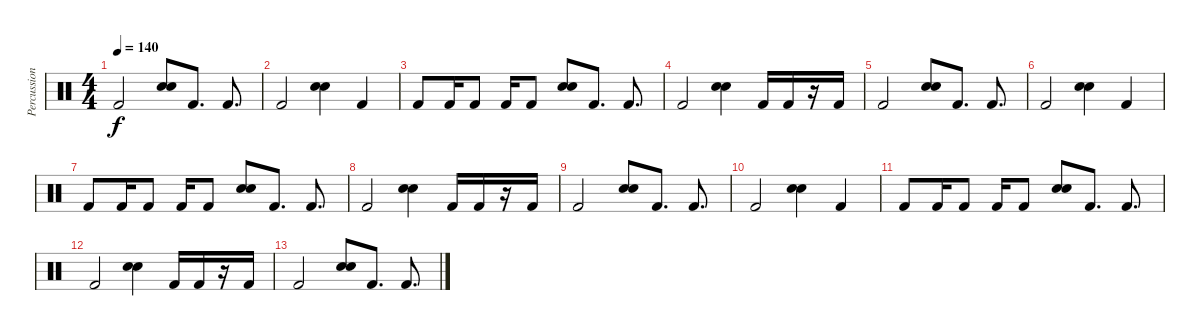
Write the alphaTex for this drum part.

\track ("Percussion" "Percussion") {instrument percussion}
\staff {score}
\articulation defaults
\ts (4 4)
\tempo 140
\clef neutral
\ks c "Kick (hit) 2".2{dy f}
("Snare (hit) 2" "Hand Clap (hit)").8 "Kick (hit) 2".8{d} "Kick (hit) 2".8{d} |
"Kick (hit) 2".2 ("Snare (hit) 2" "Hand Clap (hit)").4 "Kick (hit) 2".4 |
"Kick (hit) 2".8 "Kick (hit) 2".16 "Kick (hit) 2".8 "Kick (hit) 2".16 "Kick (hit) 2".8 ("Snare (hit) 2" "Hand Clap (hit)").8 "Kick (hit) 2".8{d} "Kick (hit) 2".8{d} |
"Kick (hit) 2".2 ("Snare (hit) 2" "Hand Clap (hit)").4 "Kick (hit) 2".16 "Kick (hit) 2".16 r.16 "Kick (hit) 2".16 |
"Kick (hit) 2".2 ("Snare (hit) 2" "Hand Clap (hit)").8 "Kick (hit) 2".8{d} "Kick (hit) 2".8{d} |
"Kick (hit) 2".2 ("Snare (hit) 2" "Hand Clap (hit)").4 "Kick (hit) 2".4 |
"Kick (hit) 2".8 "Kick (hit) 2".16 "Kick (hit) 2".8 "Kick (hit) 2".16 "Kick (hit) 2".8 ("Snare (hit) 2" "Hand Clap (hit)").8 "Kick (hit) 2".8{d} "Kick (hit) 2".8{d} |
"Kick (hit) 2".2 ("Snare (hit) 2" "Hand Clap (hit)").4 "Kick (hit) 2".16 "Kick (hit) 2".16 r.16 "Kick (hit) 2".16 |
"Kick (hit) 2".2 ("Snare (hit) 2" "Hand Clap (hit)").8 "Kick (hit) 2".8{d} "Kick (hit) 2".8{d} |
"Kick (hit) 2".2 ("Snare (hit) 2" "Hand Clap (hit)").4 "Kick (hit) 2".4 |
"Kick (hit) 2".8 "Kick (hit) 2".16 "Kick (hit) 2".8 "Kick (hit) 2".16 "Kick (hit) 2".8 ("Snare (hit) 2" "Hand Clap (hit)").8 "Kick (hit) 2".8{d} "Kick (hit) 2".8{d} |
"Kick (hit) 2".2 ("Snare (hit) 2" "Hand Clap (hit)").4 "Kick (hit) 2".16 "Kick (hit) 2".16 r.16 "Kick (hit) 2".16 |
"Kick (hit) 2".2 ("Snare (hit) 2" "Hand Clap (hit)").8 "Kick (hit) 2".8{d} "Kick (hit) 2".8{d}
